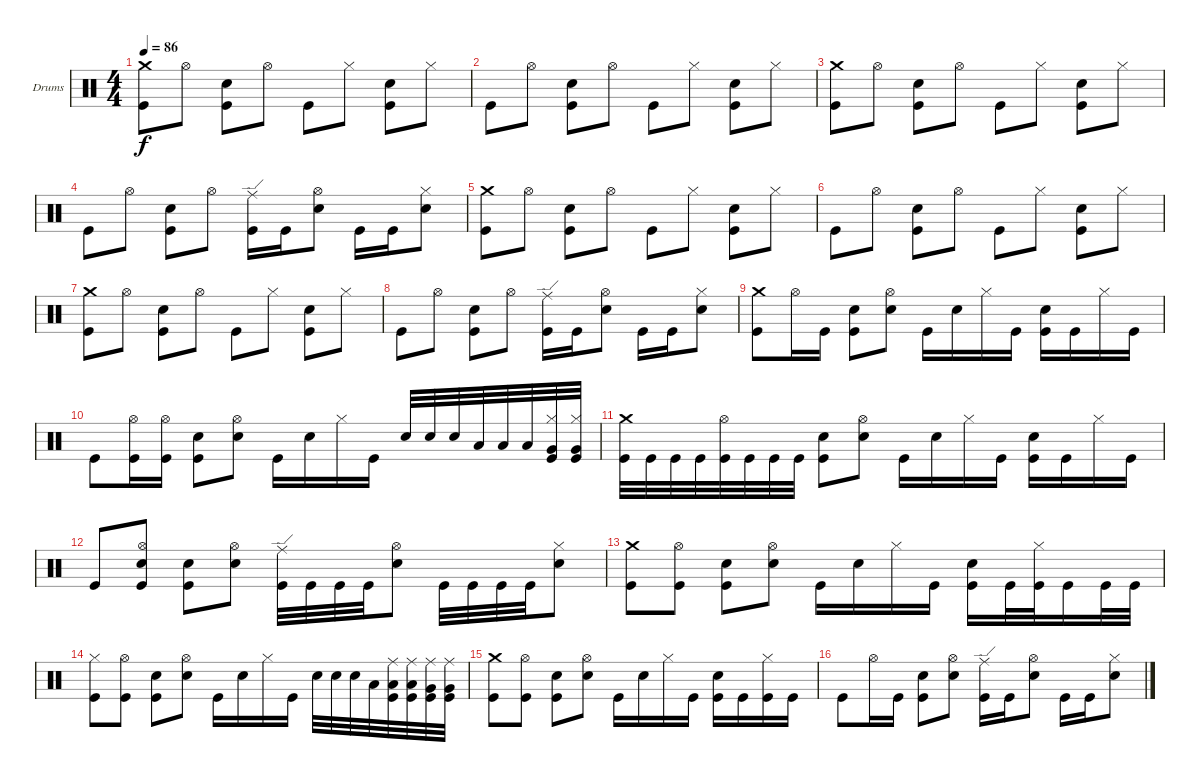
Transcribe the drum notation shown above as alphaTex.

\defaultSystemsLayout 4
\bracketExtendMode groupsimilarinstruments
\firstSystemTrackNameOrientation horizontal
\otherSystemsTrackNameOrientation horizontal
\track ("Drumkit" "Drums") {instrument percussion}
\staff {score}
\articulation defaults
\ts (4 4)
\tempo 86
\clef neutral
\scale
0.472222
\ks c
("Crash medium (hit)" "Kick (hit)").8{dy f} "Hi-Hat (open)".8 ("Snare (hit) 2" "Kick (hit)").8 "Hi-Hat (open)".8 "Kick (hit)".8 "Hi-Hat (closed)".8 ("Snare (hit) 2" "Kick (hit)").8 "Hi-Hat (closed)".8 |
\scale
0.263889 "Kick (hit)".8 "Hi-Hat (open)".8 ("Snare (hit) 2" "Kick (hit)").8 "Hi-Hat (open)".8 "Kick (hit)".8 "Hi-Hat (closed)".8 ("Snare (hit) 2" "Kick (hit)").8 "Hi-Hat (closed)".8 |
\scale
0.263889 ("Crash medium (hit)" "Kick (hit)").8 "Hi-Hat (open)".8 ("Snare (hit) 2" "Kick (hit)").8 "Hi-Hat (open)".8 "Kick (hit)".8 "Hi-Hat (closed)".8 ("Snare (hit) 2" "Kick (hit)").8 "Hi-Hat (closed)".8 |
\scale
0.333333 "Kick (hit)".8 "Hi-Hat (open)".8 ("Snare (hit) 2" "Kick (hit)").8 "Hi-Hat (open)".8 ("Ride (edge)" "Kick (hit)").16 "Kick (hit)".16 ("Hi-Hat (open)" "Snare (hit) 2").8 "Kick (hit)".16 "Kick (hit)".16 ("Hi-Hat (closed)" "Snare (hit) 2").8 |
\scale
0.333333 ("Crash medium (hit)" "Kick (hit)").8 "Hi-Hat (open)".8 ("Snare (hit) 2" "Kick (hit)").8 "Hi-Hat (open)".8 "Kick (hit)".8 "Hi-Hat (closed)".8 ("Snare (hit) 2" "Kick (hit)").8 "Hi-Hat (closed)".8 |
\scale
0.333333 "Kick (hit)".8 "Hi-Hat (open)".8 ("Snare (hit) 2" "Kick (hit)").8 "Hi-Hat (open)".8 "Kick (hit)".8 "Hi-Hat (closed)".8 ("Snare (hit) 2" "Kick (hit)").8 "Hi-Hat (closed)".8 |
\scale
0.333333 ("Crash medium (hit)" "Kick (hit)").8 "Hi-Hat (open)".8 ("Snare (hit) 2" "Kick (hit)").8 "Hi-Hat (open)".8 "Kick (hit)".8 "Hi-Hat (closed)".8 ("Snare (hit) 2" "Kick (hit)").8 "Hi-Hat (closed)".8 |
\scale
0.333333 "Kick (hit)".8 "Hi-Hat (open)".8 ("Snare (hit) 2" "Kick (hit)").8 "Hi-Hat (open)".8 ("Ride (edge)" "Kick (hit)").16 "Kick (hit)".16 ("Hi-Hat (open)" "Snare (hit) 2").8 "Kick (hit)".16 "Kick (hit)".16 ("Hi-Hat (closed)" "Snare (hit) 2").8 |
\scale
0.333333 ("Crash medium (hit)" "Kick (hit)").8 "Hi-Hat (open)".16 "Kick (hit)".16 ("Snare (hit) 2" "Kick (hit)").8 ("Hi-Hat (open)" "Snare (hit) 2").8 "Kick (hit)".16 "Snare (hit) 2".16 "Hi-Hat (closed)".16 "Kick (hit)".16 ("Snare (hit) 2" "Kick (hit)").16 "Kick (hit)".16 "Hi-Hat (closed)".16 "Kick (hit)".16 |
\scale
0.333333 "Kick (hit)".8 ("Hi-Hat (open)" "Kick (hit)").16 ("Hi-Hat (open)" "Kick (hit)").16 ("Snare (hit) 2" "Kick (hit)").8 ("Hi-Hat (open)" "Snare (hit) 2").8 "Kick (hit)".16 "Snare (hit) 2".16 "Hi-Hat (closed)".16 "Kick (hit)".16 "Snare (hit) 2".32 "Snare (hit) 2".32 "Snare (hit) 2".32 "Low Tom (hit)".32 "Low Tom (hit)".32 "Low Tom (hit)".32 ("Hi-Hat (closed)" "Very Low Tom (hit)" "Kick (hit)").32 ("Hi-Hat (closed)" "Very Low Tom (hit)" "Kick (hit)").32 |
\scale
0.333333 ("Crash medium (hit)" "Kick (hit)").32 "Kick (hit)".32 "Kick (hit)".32 "Kick (hit)".32 ("Hi-Hat (open)" "Kick (hit)").32 "Kick (hit)".32 "Kick (hit)".32 "Kick (hit)".32 ("Snare (hit) 2" "Kick (hit)").8 ("Hi-Hat (open)" "Snare (hit) 2").8 "Kick (hit)".16 "Snare (hit) 2".16 "Hi-Hat (closed)".16 "Kick (hit)".16 ("Snare (hit) 2" "Kick (hit)").16 "Kick (hit)".16 "Hi-Hat (closed)".16 "Kick (hit)".16 |
\scale
0.333333 "Kick (hit)".8 ("Hi-Hat (open)" "Snare (hit) 2" "Kick (hit)").8 ("Snare (hit) 2" "Kick (hit)").8 ("Hi-Hat (open)" "Snare (hit) 2").8 ("Ride (edge)" "Kick (hit)").32 "Kick (hit)".32 "Kick (hit)".32 "Kick (hit)".32 ("Hi-Hat (open)" "Snare (hit) 2").8 "Kick (hit)".32 "Kick (hit)".32 "Kick (hit)".32 "Kick (hit)".32 ("Hi-Hat (closed)" "Snare (hit) 2").8 |
\scale
0.333333 ("Crash medium (hit)" "Kick (hit)").8 ("Hi-Hat (open)" "Kick (hit)").8 ("Snare (hit) 2" "Kick (hit)").8 ("Hi-Hat (open)" "Snare (hit) 2").8 "Kick (hit)".16 "Snare (hit) 2".16 "Hi-Hat (closed)".16 "Kick (hit)".16 ("Snare (hit) 2" "Kick (hit)").16 "Kick (hit)".32 ("Hi-Hat (closed)" "Kick (hit)").32 "Kick (hit)".16 "Kick (hit)".32 "Kick (hit)".32 |
\scale
0.333333 ("Hi-Hat (closed)" "Kick (hit)").8 ("Hi-Hat (open)" "Kick (hit)").8 ("Snare (hit) 2" "Kick (hit)").8 ("Hi-Hat (open)" "Snare (hit) 2").8 "Kick (hit)".16 "Snare (hit) 2".16 "Hi-Hat (closed)".16 "Kick (hit)".16 "Snare (hit) 2".32 "Snare (hit) 2".32 "Snare (hit) 2".32 "Low Tom (hit)".32 ("Ride (middle)" "Low Tom (hit)" "Kick (hit)").32 ("Ride (middle)" "Low Tom (hit)" "Kick (hit)").32 ("Ride (middle)" "Very Low Tom (hit)" "Kick (hit)").32 ("Ride (middle)" "Very Low Tom (hit)" "Kick (hit)").32 |
\scale
0.333333 ("Crash medium (hit)" "Kick (hit)").8 ("Hi-Hat (open)" "Kick (hit)").8 ("Snare (hit) 2" "Kick (hit)").8 ("Hi-Hat (open)" "Snare (hit) 2").8 "Kick (hit)".16 "Snare (hit) 2".16 "Hi-Hat (closed)".16 "Kick (hit)".16 ("Snare (hit) 2" "Kick (hit)").16 "Kick (hit)".16 ("Hi-Hat (closed)" "Kick (hit)").16 "Kick (hit)".16 |
\scale
0.333333 "Kick (hit)".8 "Hi-Hat (open)".16 "Kick (hit)".16 ("Snare (hit) 2" "Kick (hit)").8 ("Hi-Hat (open)" "Snare (hit) 2").8 ("Ride (edge)" "Kick (hit)").16 "Kick (hit)".16 ("Hi-Hat (open)" "Snare (hit) 2").8 "Kick (hit)".16 "Kick (hit)".16 ("Hi-Hat (closed)" "Snare (hit) 2").8
